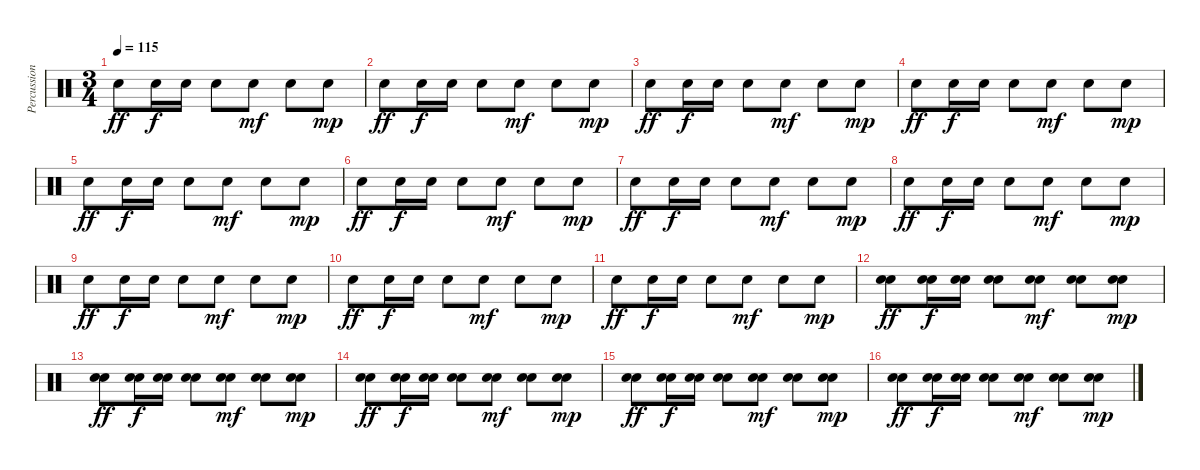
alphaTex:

\track ("Percussion 2" "Percussion") {instrument percussion}
\staff {score}
\articulation defaults
\ts (3 4)
\tempo 115
\clef neutral
\ks c "Electric Snare (hit)".8{dy ff} "Electric Snare (hit)".16{dy f} "Electric Snare (hit)".16 "Electric Snare (hit)".8 "Electric Snare (hit)".8{dy mf} "Electric Snare (hit)".8 "Electric Snare (hit)".8{dy mp}
|
"Electric Snare (hit)".8{dy ff} "Electric Snare (hit)".16{dy f} "Electric Snare (hit)".16 "Electric Snare (hit)".8 "Electric Snare (hit)".8{dy mf} "Electric Snare (hit)".8 "Electric Snare (hit)".8{dy mp} |
"Electric Snare (hit)".8{dy ff} "Electric Snare (hit)".16{dy f} "Electric Snare (hit)".16 "Electric Snare (hit)".8 "Electric Snare (hit)".8{dy mf} "Electric Snare (hit)".8 "Electric Snare (hit)".8{dy mp} |
"Electric Snare (hit)".8{dy ff} "Electric Snare (hit)".16{dy f} "Electric Snare (hit)".16 "Electric Snare (hit)".8 "Electric Snare (hit)".8{dy mf} "Electric Snare (hit)".8 "Electric Snare (hit)".8{dy mp} |
"Electric Snare (hit)".8{dy ff} "Electric Snare (hit)".16{dy f} "Electric Snare (hit)".16 "Electric Snare (hit)".8 "Electric Snare (hit)".8{dy mf} "Electric Snare (hit)".8 "Electric Snare (hit)".8{dy mp} |
"Electric Snare (hit)".8{dy ff} "Electric Snare (hit)".16{dy f} "Electric Snare (hit)".16 "Electric Snare (hit)".8 "Electric Snare (hit)".8{dy mf} "Electric Snare (hit)".8 "Electric Snare (hit)".8{dy mp} |
"Electric Snare (hit)".8{dy ff} "Electric Snare (hit)".16{dy f} "Electric Snare (hit)".16 "Electric Snare (hit)".8 "Electric Snare (hit)".8{dy mf} "Electric Snare (hit)".8 "Electric Snare (hit)".8{dy mp} |
"Electric Snare (hit)".8{dy ff} "Electric Snare (hit)".16{dy f} "Electric Snare (hit)".16 "Electric Snare (hit)".8 "Electric Snare (hit)".8{dy mf} "Electric Snare (hit)".8 "Electric Snare (hit)".8{dy mp} |
"Electric Snare (hit)".8{dy ff} "Electric Snare (hit)".16{dy f} "Electric Snare (hit)".16 "Electric Snare (hit)".8 "Electric Snare (hit)".8{dy mf} "Electric Snare (hit)".8 "Electric Snare (hit)".8{dy mp} |
"Electric Snare (hit)".8{dy ff} "Electric Snare (hit)".16{dy f} "Electric Snare (hit)".16 "Electric Snare (hit)".8 "Electric Snare (hit)".8{dy mf} "Electric Snare (hit)".8 "Electric Snare (hit)".8{dy mp} |
"Electric Snare (hit)".8{dy ff} "Electric Snare (hit)".16{dy f} "Electric Snare (hit)".16 "Electric Snare (hit)".8 "Electric Snare (hit)".8{dy mf} "Electric Snare (hit)".8 "Electric Snare (hit)".8{dy mp} |
("Electric Snare (hit)" "Electric Snare (hit)").8{dy ff} ("Electric Snare (hit)" "Electric Snare (hit)").16{dy f} ("Electric Snare (hit)" "Electric Snare (hit)").16 ("Electric Snare (hit)" "Electric Snare (hit)").8 ("Electric Snare (hit)" "Electric Snare (hit)").8{dy mf} ("Electric Snare (hit)" "Electric Snare (hit)").8 ("Electric Snare (hit)" "Electric Snare (hit)").8{dy mp} |
("Electric Snare (hit)" "Electric Snare (hit)").8{dy ff} ("Electric Snare (hit)" "Electric Snare (hit)").16{dy f} ("Electric Snare (hit)" "Electric Snare (hit)").16 ("Electric Snare (hit)" "Electric Snare (hit)").8 ("Electric Snare (hit)" "Electric Snare (hit)").8{dy mf} ("Electric Snare (hit)" "Electric Snare (hit)").8 ("Electric Snare (hit)" "Electric Snare (hit)").8{dy mp} |
("Electric Snare (hit)" "Electric Snare (hit)").8{dy ff} ("Electric Snare (hit)" "Electric Snare (hit)").16{dy f} ("Electric Snare (hit)" "Electric Snare (hit)").16 ("Electric Snare (hit)" "Electric Snare (hit)").8 ("Electric Snare (hit)" "Electric Snare (hit)").8{dy mf} ("Electric Snare (hit)" "Electric Snare (hit)").8 ("Electric Snare (hit)" "Electric Snare (hit)").8{dy mp} |
("Electric Snare (hit)" "Electric Snare (hit)").8{dy ff} ("Electric Snare (hit)" "Electric Snare (hit)").16{dy f} ("Electric Snare (hit)" "Electric Snare (hit)").16 ("Electric Snare (hit)" "Electric Snare (hit)").8 ("Electric Snare (hit)" "Electric Snare (hit)").8{dy mf} ("Electric Snare (hit)" "Electric Snare (hit)").8 ("Electric Snare (hit)" "Electric Snare (hit)").8{dy mp} |
("Electric Snare (hit)" "Electric Snare (hit)").8{dy ff} ("Electric Snare (hit)" "Electric Snare (hit)").16{dy f} ("Electric Snare (hit)" "Electric Snare (hit)").16 ("Electric Snare (hit)" "Electric Snare (hit)").8 ("Electric Snare (hit)" "Electric Snare (hit)").8{dy mf} ("Electric Snare (hit)" "Electric Snare (hit)").8 ("Electric Snare (hit)" "Electric Snare (hit)").8{dy mp}
